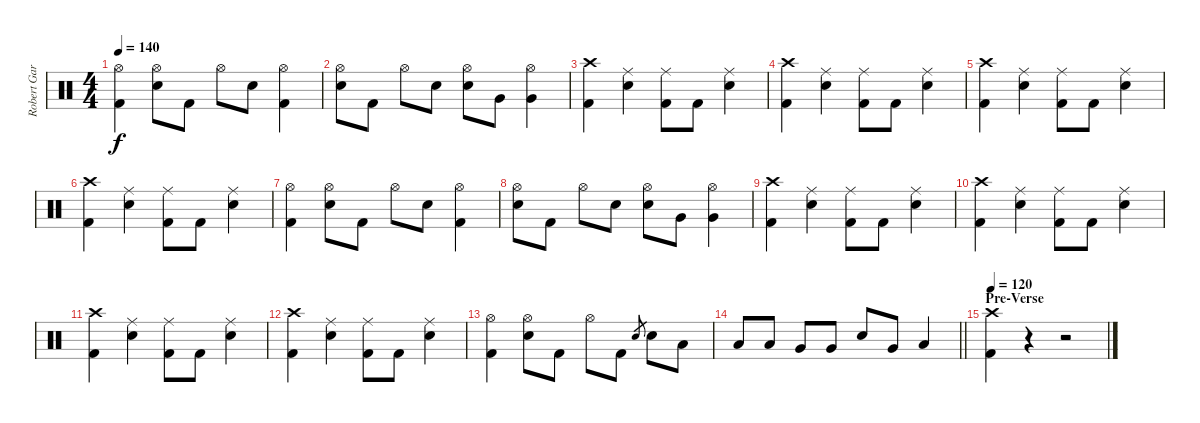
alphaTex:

\track ("Robert Garven" "Robert Gar") {instrument percussion}
\staff {score}
\articulation defaults
\ts (4 4)
\tempo 140
\clef neutral
\ks c
("Hi-Hat (open)" "Kick (hit) 2").4{dy f} ("Hi-Hat (open)" "Electric Snare (hit)").8 "Kick (hit) 2".8 "Hi-Hat (open)".8 "Electric Snare (hit)".8 ("Hi-Hat (open)" "Kick (hit) 2").4 |
("Hi-Hat (open)" "Electric Snare (hit)").8 "Kick (hit) 2".8 "Hi-Hat (open)".8 "Electric Snare (hit)".8 ("Hi-Hat (open)" "Electric Snare (hit)").8 "Very Low Tom (hit)".8 ("Hi-Hat (open)" "Very Low Tom (hit)").4 |
("Crash high (hit)" "Kick (hit) 2").4 ("Ride (middle)" "Electric Snare (hit)").4 ("Ride (middle)" "Kick (hit) 2").8 "Kick (hit) 2".8 ("Ride (middle)" "Electric Snare (hit)").4 |
("Crash high (hit)" "Kick (hit) 2").4 ("Ride (middle)" "Electric Snare (hit)").4 ("Ride (middle)" "Kick (hit) 2").8 "Kick (hit) 2".8 ("Ride (middle)" "Electric Snare (hit)").4 |
("Crash high (hit)" "Kick (hit) 2").4 ("Ride (middle)" "Electric Snare (hit)").4 ("Ride (middle)" "Kick (hit) 2").8 "Kick (hit) 2".8 ("Ride (middle)" "Electric Snare (hit)").4 |
("Crash high (hit)" "Kick (hit) 2").4 ("Ride (middle)" "Electric Snare (hit)").4 ("Ride (middle)" "Kick (hit) 2").8 "Kick (hit) 2".8 ("Ride (middle)" "Electric Snare (hit)").4 |
("Hi-Hat (open)" "Kick (hit) 2").4 ("Hi-Hat (open)" "Electric Snare (hit)").8 "Kick (hit) 2".8 "Hi-Hat (open)".8 "Electric Snare (hit)".8 ("Hi-Hat (open)" "Kick (hit) 2").4 |
("Hi-Hat (open)" "Electric Snare (hit)").8 "Kick (hit) 2".8 "Hi-Hat (open)".8 "Electric Snare (hit)".8 ("Hi-Hat (open)" "Electric Snare (hit)").8 "Very Low Tom (hit)".8 ("Hi-Hat (open)" "Very Low Tom (hit)").4 |
("Crash high (hit)" "Kick (hit) 2").4 ("Ride (middle)" "Electric Snare (hit)").4 ("Ride (middle)" "Kick (hit) 2").8 "Kick (hit) 2".8 ("Ride (middle)" "Electric Snare (hit)").4 |
("Crash high (hit)" "Kick (hit) 2").4 ("Ride (middle)" "Electric Snare (hit)").4 ("Ride (middle)" "Kick (hit) 2").8 "Kick (hit) 2".8 ("Ride (middle)" "Electric Snare (hit)").4 |
("Crash high (hit)" "Kick (hit) 2").4 ("Ride (middle)" "Electric Snare (hit)").4 ("Ride (middle)" "Kick (hit) 2").8 "Kick (hit) 2".8 ("Ride (middle)" "Electric Snare (hit)").4 |
("Crash high (hit)" "Kick (hit) 2").4 ("Ride (middle)" "Electric Snare (hit)").4 ("Ride (middle)" "Kick (hit) 2").8 "Kick (hit) 2".8 ("Ride (middle)" "Electric Snare (hit)").4 |
("Hi-Hat (open)" "Kick (hit) 2").4 ("Hi-Hat (open)" "Electric Snare (hit)").8 "Kick (hit) 2".8 "Hi-Hat (open)".8 "Kick (hit) 2".8 "Electric Snare (hit)".8{gr} "Electric Snare (hit)".8 "Low Floor Tom (hit)".8 |
\barLineRight lightlight "Low Floor Tom (hit)".8 "Low Tom (hit)".8 "Very Low Tom (hit)".8 "Very Low Tom (hit)".8 "Electric Snare (hit)".8 "Very Low Tom (hit)".8 "Low Tom (hit)".4
|
\section ("" "Pre-Verse")
\tempo 120
("Crash high (hit)" "Kick (hit) 2").4 r.4 r.2
